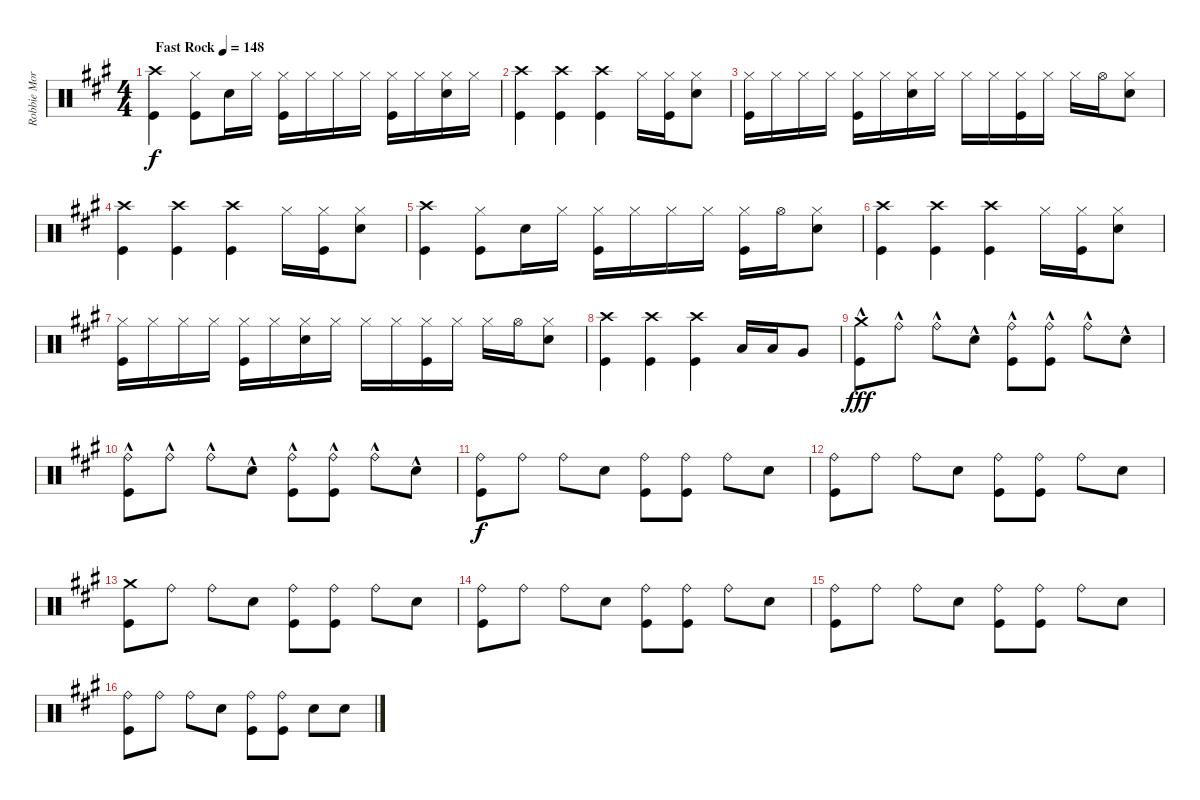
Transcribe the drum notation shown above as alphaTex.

\track ("Robbie Morris Drums" "Robbie Mor") {instrument percussion}
\staff {score}
\articulation defaults
\ts (4 4)
\tempo (148 "Fast Rock")
\clef neutral
\ks a
("Crash high (hit)" "Kick (hit)").4{dy f} ("Hi-Hat (closed)" "Kick (hit)").8 "Snare (hit) 2".16 "Hi-Hat (closed)".16 ("Hi-Hat (closed)" "Kick (hit)").16 "Hi-Hat (closed)".16 "Hi-Hat (closed)".16 "Hi-Hat (closed)".16 ("Hi-Hat (closed)" "Kick (hit)").16 "Hi-Hat (closed)".16 ("Hi-Hat (closed)" "Snare (hit) 2").16 "Hi-Hat (closed)".16 |
("Crash high (hit)" "Kick (hit)").4 ("Crash high (hit)" "Kick (hit)").4 ("Crash high (hit)" "Kick (hit)").4 "Hi-Hat (closed)".16 ("Hi-Hat (closed)" "Kick (hit)").16 ("Hi-Hat (closed)" "Snare (hit) 2").8 |
("Hi-Hat (closed)" "Kick (hit)").16 "Hi-Hat (closed)".16 "Hi-Hat (closed)".16 "Hi-Hat (closed)".16 ("Hi-Hat (closed)" "Kick (hit)").16 "Hi-Hat (closed)".16 ("Hi-Hat (closed)" "Snare (hit) 2").16 "Hi-Hat (closed)".16 "Hi-Hat (closed)".16 "Hi-Hat (closed)".16 ("Hi-Hat (closed)" "Kick (hit)").16 "Hi-Hat (closed)".16 "Hi-Hat (closed)".16 "Hi-Hat (open)".16 ("Hi-Hat (closed)" "Snare (hit) 2").8 |
("Crash high (hit)" "Kick (hit)").4 ("Crash high (hit)" "Kick (hit)").4 ("Crash high (hit)" "Kick (hit)").4 "Hi-Hat (closed)".16 ("Hi-Hat (closed)" "Kick (hit)").16 ("Hi-Hat (closed)" "Snare (hit) 2").8 |
("Crash high (hit)" "Kick (hit)").4 ("Hi-Hat (closed)" "Kick (hit)").8 "Snare (hit) 2".16 "Hi-Hat (closed)".16 ("Hi-Hat (closed)" "Kick (hit)").16 "Hi-Hat (closed)".16 "Hi-Hat (closed)".16 "Hi-Hat (closed)".16 ("Hi-Hat (closed)" "Kick (hit)").16 "Hi-Hat (open)".16 ("Hi-Hat (closed)" "Snare (hit) 2").8 |
("Crash high (hit)" "Kick (hit)").4 ("Crash high (hit)" "Kick (hit)").4 ("Crash high (hit)" "Kick (hit)").4 "Hi-Hat (closed)".16 ("Hi-Hat (closed)" "Kick (hit)").16 ("Hi-Hat (closed)" "Snare (hit) 2").8 |
("Hi-Hat (closed)" "Kick (hit)").16 "Hi-Hat (closed)".16 "Hi-Hat (closed)".16 "Hi-Hat (closed)".16 ("Hi-Hat (closed)" "Kick (hit)").16 "Hi-Hat (closed)".16 ("Hi-Hat (closed)" "Snare (hit) 2").16 "Hi-Hat (closed)".16 "Hi-Hat (closed)".16 "Hi-Hat (closed)".16 ("Hi-Hat (closed)" "Kick (hit)").16 "Hi-Hat (closed)".16 "Hi-Hat (closed)".16 "Hi-Hat (open)".16 ("Hi-Hat (closed)" "Snare (hit) 2").8 |
("Crash high (hit)" "Kick (hit)").4 ("Crash high (hit)" "Kick (hit)").4 ("Crash high (hit)" "Kick (hit)").4 "Low Tom (hit)".16 "Low Tom (hit)".16 "Very Low Tom (hit)".8 |
("Crash medium (hit)"{hac} "Kick (hit)"{hac}).8{dy fff} "Ride (bell)"{hac}.8 "Ride (bell)"{hac}.8 "Snare (hit) 2"{hac}.8 ("Ride (bell)"{hac} "Kick (hit)"{hac}).8 ("Ride (bell)"{hac} "Kick (hit)"{hac}).8 "Ride (bell)"{hac}.8 "Snare (hit) 2"{hac}.8 |
("Ride (bell)"{hac} "Kick (hit)"{hac}).8 "Ride (bell)"{hac}.8 "Ride (bell)"{hac}.8 "Snare (hit) 2"{hac}.8 ("Ride (bell)"{hac} "Kick (hit)"{hac}).8 ("Ride (bell)"{hac} "Kick (hit)"{hac}).8 "Ride (bell)"{hac}.8 "Snare (hit) 2"{hac}.8 |
("Ride (bell)" "Kick (hit)").8{dy f} "Ride (bell)".8 "Ride (bell)".8 "Snare (hit) 2".8 ("Ride (bell)" "Kick (hit)").8 ("Ride (bell)" "Kick (hit)").8 "Ride (bell)".8 "Snare (hit) 2".8 |
("Ride (bell)" "Kick (hit)").8 "Ride (bell)".8 "Ride (bell)".8 "Snare (hit) 2".8 ("Ride (bell)" "Kick (hit)").8 ("Ride (bell)" "Kick (hit)").8 "Ride (bell)".8 "Snare (hit) 2".8 |
("Crash medium (hit)" "Kick (hit)").8 "Ride (bell)".8 "Ride (bell)".8 "Snare (hit) 2".8 ("Ride (bell)" "Kick (hit)").8 ("Ride (bell)" "Kick (hit)").8 "Ride (bell)".8 "Snare (hit) 2".8 |
("Ride (bell)" "Kick (hit)").8 "Ride (bell)".8 "Ride (bell)".8 "Snare (hit) 2".8 ("Ride (bell)" "Kick (hit)").8 ("Ride (bell)" "Kick (hit)").8 "Ride (bell)".8 "Snare (hit) 2".8 |
("Ride (bell)" "Kick (hit)").8 "Ride (bell)".8 "Ride (bell)".8 "Snare (hit) 2".8 ("Ride (bell)" "Kick (hit)").8 ("Ride (bell)" "Kick (hit)").8 "Ride (bell)".8 "Snare (hit) 2".8 |
("Ride (bell)" "Kick (hit)").8 "Ride (bell)".8 "Ride (bell)".8 "Snare (hit) 2".8 ("Ride (bell)" "Kick (hit)").8 ("Ride (bell)" "Kick (hit)").8 "Snare (hit) 2".8 "Snare (hit) 2".8
